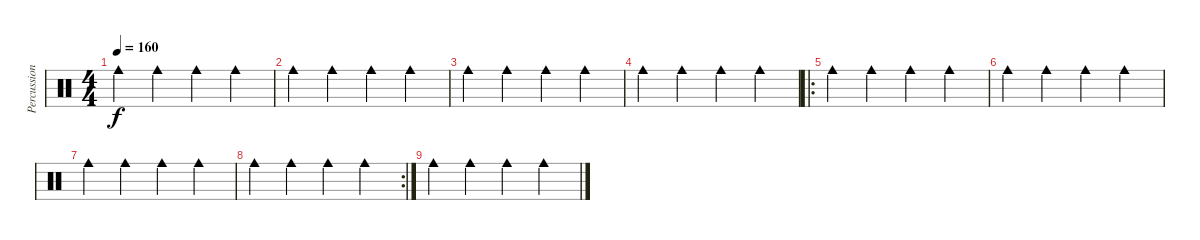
\track ("Percussions" "Percussion") {instrument percussion}
\staff {score}
\articulation defaults
\ts (4 4)
\tempo 160
\clef neutral
\ks c "Cowbell medium (hit)".4{dy f} "Cowbell medium (hit)".4 "Cowbell medium (hit)".4 "Cowbell medium (hit)".4
|
"Cowbell medium (hit)".4 "Cowbell medium (hit)".4 "Cowbell medium (hit)".4 "Cowbell medium (hit)".4 |
"Cowbell medium (hit)".4 "Cowbell medium (hit)".4 "Cowbell medium (hit)".4 "Cowbell medium (hit)".4 |
"Cowbell medium (hit)".4 "Cowbell medium (hit)".4 "Cowbell medium (hit)".4 "Cowbell medium (hit)".4 |
\ro "Cowbell medium (hit)".4 "Cowbell medium (hit)".4 "Cowbell medium (hit)".4 "Cowbell medium (hit)".4
|
"Cowbell medium (hit)".4 "Cowbell medium (hit)".4 "Cowbell medium (hit)".4 "Cowbell medium (hit)".4 |
"Cowbell medium (hit)".4 "Cowbell medium (hit)".4 "Cowbell medium (hit)".4 "Cowbell medium (hit)".4 |
\rc 2 "Cowbell medium (hit)".4 "Cowbell medium (hit)".4 "Cowbell medium (hit)".4 "Cowbell medium (hit)".4
|
"Cowbell medium (hit)".4 "Cowbell medium (hit)".4 "Cowbell medium (hit)".4 "Cowbell medium (hit)".4
